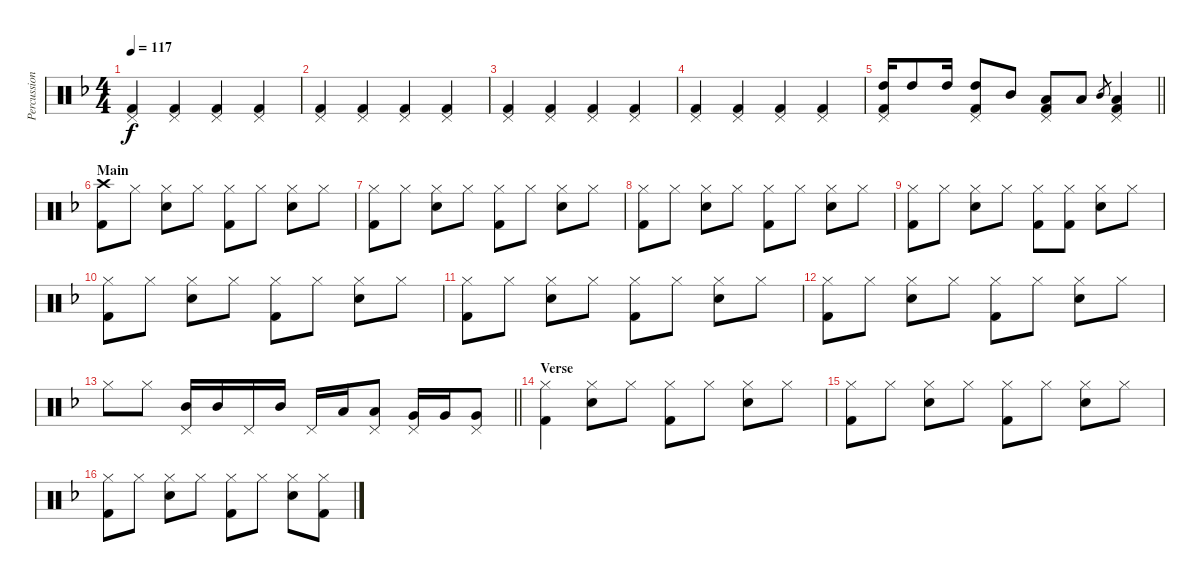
\track ("Percussion" "Percussion") {instrument percussion}
\staff {score}
\articulation defaults
\ts (4 4)
\tempo 117
\clef neutral
\ks f
("Pedal Hi-Hat (hit)" "Kick (hit) 2").4{dy f} ("Pedal Hi-Hat (hit)" "Kick (hit) 2").4 ("Pedal Hi-Hat (hit)" "Kick (hit) 2").4 ("Pedal Hi-Hat (hit)" "Kick (hit) 2").4 |
("Pedal Hi-Hat (hit)" "Kick (hit) 2").4 ("Pedal Hi-Hat (hit)" "Kick (hit) 2").4 ("Pedal Hi-Hat (hit)" "Kick (hit) 2").4 ("Pedal Hi-Hat (hit)" "Kick (hit) 2").4 |
("Pedal Hi-Hat (hit)" "Kick (hit) 2").4 ("Pedal Hi-Hat (hit)" "Kick (hit) 2").4 ("Pedal Hi-Hat (hit)" "Kick (hit) 2").4 ("Pedal Hi-Hat (hit)" "Kick (hit) 2").4 |
("Pedal Hi-Hat (hit)" "Kick (hit) 2").4 ("Pedal Hi-Hat (hit)" "Kick (hit) 2").4 ("Pedal Hi-Hat (hit)" "Kick (hit) 2").4 ("Pedal Hi-Hat (hit)" "Kick (hit) 2").4 |
\barLineRight lightlight
("Pedal Hi-Hat (hit)" "High Tom (hit)" "Kick (hit) 2").16 "High Tom (hit)".8 "High Tom (hit)".16 ("Pedal Hi-Hat (hit)" "High Tom (hit)" "Kick (hit) 2").8 "Mid Tom (hit)".8 ("Pedal Hi-Hat (hit)" "Low Tom (hit)" "Kick (hit) 2").8 "Low Tom (hit)".8 "Mid Tom (hit)".8{gr} ("Pedal Hi-Hat (hit)" "Low Tom (hit)" "Kick (hit) 2").4 |
\section ("" "Main")
("Crash high (hit)" "Kick (hit) 2").8 "Hi-Hat (closed)".8 ("Hi-Hat (closed)" "Electric Snare (hit)").8 "Hi-Hat (closed)".8 ("Hi-Hat (closed)" "Kick (hit) 2").8 "Hi-Hat (closed)".8 ("Hi-Hat (closed)" "Electric Snare (hit)").8 "Hi-Hat (closed)".8 |
("Hi-Hat (closed)" "Kick (hit) 2").8 "Hi-Hat (closed)".8 ("Hi-Hat (closed)" "Electric Snare (hit)").8 "Hi-Hat (closed)".8 ("Hi-Hat (closed)" "Kick (hit) 2").8 "Hi-Hat (closed)".8 ("Hi-Hat (closed)" "Electric Snare (hit)").8 "Hi-Hat (closed)".8 |
("Hi-Hat (closed)" "Kick (hit) 2").8 "Hi-Hat (closed)".8 ("Hi-Hat (closed)" "Electric Snare (hit)").8 "Hi-Hat (closed)".8 ("Hi-Hat (closed)" "Kick (hit) 2").8 "Hi-Hat (closed)".8 ("Hi-Hat (closed)" "Electric Snare (hit)").8 "Hi-Hat (closed)".8 |
("Hi-Hat (closed)" "Kick (hit) 2").8 "Hi-Hat (closed)".8 ("Hi-Hat (closed)" "Electric Snare (hit)").8 "Hi-Hat (closed)".8 ("Hi-Hat (closed)" "Kick (hit) 2").8 ("Hi-Hat (closed)" "Kick (hit) 2").8 ("Hi-Hat (closed)" "Electric Snare (hit)").8 "Hi-Hat (closed)".8 |
("Hi-Hat (closed)" "Kick (hit) 2").8 "Hi-Hat (closed)".8 ("Hi-Hat (closed)" "Electric Snare (hit)").8 "Hi-Hat (closed)".8 ("Hi-Hat (closed)" "Kick (hit) 2").8 "Hi-Hat (closed)".8 ("Hi-Hat (closed)" "Electric Snare (hit)").8 "Hi-Hat (closed)".8 |
("Hi-Hat (closed)" "Kick (hit) 2").8 "Hi-Hat (closed)".8 ("Hi-Hat (closed)" "Electric Snare (hit)").8 "Hi-Hat (closed)".8 ("Hi-Hat (closed)" "Kick (hit) 2").8 "Hi-Hat (closed)".8 ("Hi-Hat (closed)" "Electric Snare (hit)").8 "Hi-Hat (closed)".8 |
("Hi-Hat (closed)" "Kick (hit) 2").8 "Hi-Hat (closed)".8 ("Hi-Hat (closed)" "Electric Snare (hit)").8 "Hi-Hat (closed)".8 ("Hi-Hat (closed)" "Kick (hit) 2").8 "Hi-Hat (closed)".8 ("Hi-Hat (closed)" "Electric Snare (hit)").8 "Hi-Hat (closed)".8 |
\barLineRight lightlight "Hi-Hat (closed)".8 "Hi-Hat (closed)".8
("Pedal Hi-Hat (hit)" "Mid Tom (hit)").16 "Mid Tom (hit)".16 "Pedal Hi-Hat (hit)".16 "Mid Tom (hit)".16 "Pedal Hi-Hat (hit)".16 "Low Tom (hit)".16 ("Pedal Hi-Hat (hit)" "Low Tom (hit)").8 ("Pedal Hi-Hat (hit)" "Very Low Tom (hit)").16 "Very Low Tom (hit)".16 ("Pedal Hi-Hat (hit)" "Very Low Tom (hit)").8 |
\section ("" "Verse")
("Hi-Hat (closed)" "Kick (hit) 2").4 ("Hi-Hat (closed)" "Electric Snare (hit)").8 "Hi-Hat (closed)".8 ("Hi-Hat (closed)" "Kick (hit) 2").8 "Hi-Hat (closed)".8 ("Hi-Hat (closed)" "Electric Snare (hit)").8 "Hi-Hat (closed)".8 |
("Hi-Hat (closed)" "Kick (hit) 2").8 "Hi-Hat (closed)".8 ("Hi-Hat (closed)" "Electric Snare (hit)").8 "Hi-Hat (closed)".8 ("Hi-Hat (closed)" "Kick (hit) 2").8 "Hi-Hat (closed)".8 ("Hi-Hat (closed)" "Electric Snare (hit)").8 "Hi-Hat (closed)".8 |
("Hi-Hat (closed)" "Kick (hit) 2").8 "Hi-Hat (closed)".8 ("Hi-Hat (closed)" "Electric Snare (hit)").8 "Hi-Hat (closed)".8 ("Hi-Hat (closed)" "Kick (hit) 2").8 "Hi-Hat (closed)".8 ("Hi-Hat (closed)" "Electric Snare (hit)").8 ("Hi-Hat (closed)" "Kick (hit) 2").8
